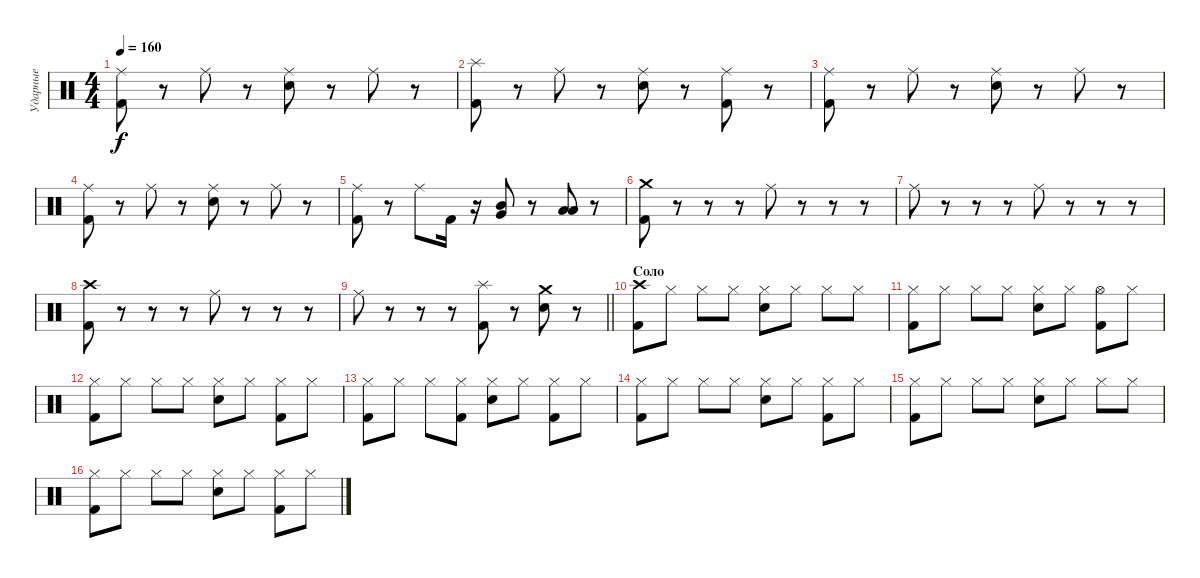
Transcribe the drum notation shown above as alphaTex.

\track ("Ударные" "Ударные") {instrument percussion}
\staff {score}
\articulation defaults
\ts (4 4)
\tempo 160
\clef neutral
\ks c
("Kick (hit) 2" "Ride (middle)").8{dy f} r.8 "Ride (middle)".8 r.8 ("Electric Snare (hit)" "Ride (middle)").8 r.8 "Ride (middle)".8 r.8 |
("Kick (hit) 2" "Splash (hit)").8 r.8 "Ride (middle)".8 r.8 ("Electric Snare (hit)" "Ride (middle)").8 r.8 ("Kick (hit) 2" "Ride (middle)").8 r.8 |
("Kick (hit) 2" "Ride (middle)").8 r.8 "Ride (middle)".8 r.8 ("Electric Snare (hit)" "Ride (middle)").8 r.8 "Ride (middle)".8 r.8 |
("Kick (hit) 2" "Ride (middle)").8 r.8 "Ride (middle)".8 r.8 ("Electric Snare (hit)" "Ride (middle)").8 r.8 "Ride (middle)".8 r.8 |
("Kick (hit) 2" "Ride (middle)").8 r.8 "Ride (middle)".8 "Kick (hit) 2".16 r.16 ("Very Low Tom (hit)" "Mid Tom (hit)").8 r.8 ("Low Floor Tom (hit)" "Low Tom (hit)").8 r.8 |
("Kick (hit) 2" "Crash medium (hit)").8 r.8 r.8 r.8 "Ride (middle)".8 r.8 r.8 r.8 |
"Ride (middle)".8 r.8 r.8 r.8 "Ride (middle)".8 r.8 r.8 r.8 |
("Kick (hit) 2" "Crash high (hit)").8 r.8 r.8 r.8 "Ride (middle)".8 r.8 r.8 r.8 |
\barLineRight lightlight "Ride (middle)".8
r.8 r.8 r.8 ("Kick (hit) 2" "Splash (hit)").8 r.8 ("Electric Snare (hit)" "Crash medium (hit)").8 r.8 |
\section ("" "Соло")
("Kick (hit) 2" "Crash high (hit)").8 "Hi-Hat (closed)".8 "Hi-Hat (closed)".8 "Hi-Hat (closed)".8 ("Electric Snare (hit)" "Hi-Hat (closed)").8 "Hi-Hat (closed)".8 "Hi-Hat (closed)".8 "Hi-Hat (closed)".8 |
("Kick (hit) 2" "Hi-Hat (closed)").8 "Hi-Hat (closed)".8 "Hi-Hat (closed)".8 "Hi-Hat (closed)".8 ("Electric Snare (hit)" "Hi-Hat (closed)").8 "Hi-Hat (closed)".8 ("Kick (hit) 2" "Hi-Hat (open)").8 "Hi-Hat (closed)".8 |
("Kick (hit) 2" "Hi-Hat (closed)").8 "Hi-Hat (closed)".8 "Hi-Hat (closed)".8 "Hi-Hat (closed)".8 ("Electric Snare (hit)" "Hi-Hat (closed)").8 "Hi-Hat (closed)".8 ("Kick (hit) 2" "Hi-Hat (closed)").8 "Hi-Hat (closed)".8 |
("Kick (hit) 2" "Hi-Hat (closed)").8 "Hi-Hat (closed)".8 "Hi-Hat (closed)".8 ("Kick (hit) 2" "Hi-Hat (closed)").8 ("Electric Snare (hit)" "Hi-Hat (closed)").8 "Hi-Hat (closed)".8 ("Kick (hit) 2" "Hi-Hat (closed)").8 "Hi-Hat (closed)".8 |
("Kick (hit) 2" "Hi-Hat (closed)").8 "Hi-Hat (closed)".8 "Hi-Hat (closed)".8 "Hi-Hat (closed)".8 ("Electric Snare (hit)" "Hi-Hat (closed)").8 "Hi-Hat (closed)".8 ("Kick (hit) 2" "Hi-Hat (closed)").8 "Hi-Hat (closed)".8 |
("Kick (hit) 2" "Hi-Hat (closed)").8 "Hi-Hat (closed)".8 "Hi-Hat (closed)".8 "Hi-Hat (closed)".8 ("Electric Snare (hit)" "Hi-Hat (closed)").8 "Hi-Hat (closed)".8 "Hi-Hat (closed)".8 "Hi-Hat (closed)".8 |
("Kick (hit) 2" "Hi-Hat (closed)").8 "Hi-Hat (closed)".8 "Hi-Hat (closed)".8 "Hi-Hat (closed)".8 ("Electric Snare (hit)" "Hi-Hat (closed)").8 "Hi-Hat (closed)".8 ("Kick (hit) 2" "Hi-Hat (closed)").8 "Hi-Hat (closed)".8
